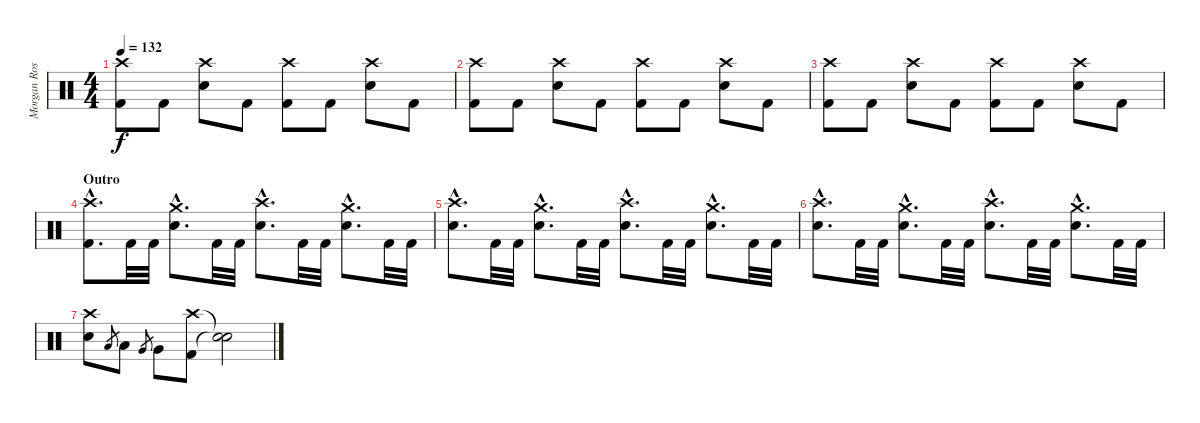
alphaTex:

\track ("Morgan Rose" "Morgan Ros") {instrument percussion}
\staff {score}
\articulation defaults
\ts (4 4)
\tempo 132
\clef neutral
\ks c
("Crash high (hit)" "Kick (hit) 2").8{dy f} "Kick (hit) 2".8 ("Crash high (hit)" "Electric Snare (hit)").8 "Kick (hit) 2".8 ("Crash high (hit)" "Kick (hit) 2").8 "Kick (hit) 2".8 ("Crash high (hit)" "Electric Snare (hit)").8 "Kick (hit) 2".8 |
("Crash high (hit)" "Kick (hit) 2").8 "Kick (hit) 2".8 ("Crash high (hit)" "Electric Snare (hit)").8 "Kick (hit) 2".8 ("Crash high (hit)" "Kick (hit) 2").8 "Kick (hit) 2".8 ("Crash high (hit)" "Electric Snare (hit)").8 "Kick (hit) 2".8 |
("Crash high (hit)" "Kick (hit) 2").8 "Kick (hit) 2".8 ("Crash high (hit)" "Electric Snare (hit)").8 "Kick (hit) 2".8 ("Crash high (hit)" "Kick (hit) 2").8 "Kick (hit) 2".8 ("Crash high (hit)" "Electric Snare (hit)").8 "Kick (hit) 2".8 |
\section ("" "Outro")
("Crash high (hit)"{hac} "Kick (hit) 2"{hac}).8{d} "Kick (hit) 2".32 "Kick (hit) 2".32 ("Crash medium (hit)"{hac} "Electric Snare (hit)"{hac}).8{d} "Kick (hit) 2".32 "Kick (hit) 2".32 ("Crash high (hit)"{hac} "Electric Snare (hit)"{hac}).8{d} "Kick (hit) 2".32 "Kick (hit) 2".32 ("Crash medium (hit)"{hac} "Electric Snare (hit)"{hac}).8{d} "Kick (hit) 2".32 "Kick (hit) 2".32 |
("Crash high (hit)"{hac} "Electric Snare (hit)"{hac}).8{d} "Kick (hit) 2".32 "Kick (hit) 2".32 ("Crash medium (hit)"{hac} "Electric Snare (hit)"{hac}).8{d} "Kick (hit) 2".32 "Kick (hit) 2".32 ("Crash high (hit)"{hac} "Electric Snare (hit)"{hac}).8{d} "Kick (hit) 2".32 "Kick (hit) 2".32 ("Crash medium (hit)"{hac} "Electric Snare (hit)"{hac}).8{d} "Kick (hit) 2".32 "Kick (hit) 2".32 |
("Crash high (hit)"{hac} "Electric Snare (hit)"{hac}).8{d} "Kick (hit) 2".32 "Kick (hit) 2".32 ("Crash medium (hit)"{hac} "Electric Snare (hit)"{hac}).8{d} "Kick (hit) 2".32 "Kick (hit) 2".32 ("Crash high (hit)"{hac} "Electric Snare (hit)"{hac}).8{d} "Kick (hit) 2".32 "Kick (hit) 2".32 ("Crash medium (hit)"{hac} "Electric Snare (hit)"{hac}).8{d} "Kick (hit) 2".32 "Kick (hit) 2".32 |
("Crash high (hit)" "Electric Snare (hit)").8 "Low Tom (hit)".8{gr} "Low Tom (hit)".8 "Very Low Tom (hit)".8{gr} "Very Low Tom (hit)".8 ("Crash high (hit)" "Kick (hit) 2").8 ("Snare (hit)"{t} "Snare (hit)"{t}).2
